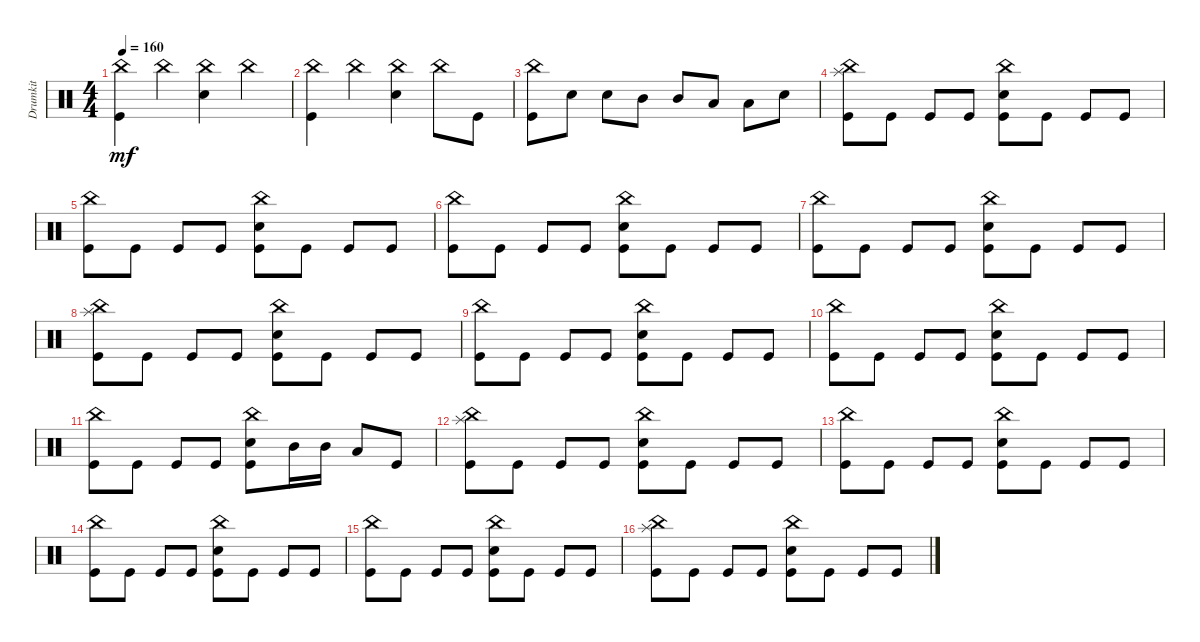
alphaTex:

\track ("Drumkit" "Drumkit") {instrument percussion}
\staff {score}
\articulation defaults
\ts (4 4)
\tempo 160
\clef neutral
\ks c
("China (hit)" "Kick (hit)").4{dy mf} "China (hit)".4 ("China (hit)" "Snare (hit) 2").4 "China (hit)".4 |
("Kick (hit)" "China (hit)").4 "China (hit)".4 ("China (hit)" "Snare (hit) 2").4 "China (hit)".8 "Kick (hit)".8 |
("Kick (hit)" "China (hit)").8 "Snare (hit) 2".8 "Snare (hit) 2".8 "Mid Tom (hit)".8 "Mid Tom (hit)".8 "Low Tom (hit)".8 "Low Floor Tom (hit)".8 "Snare (hit) 2".8 |
("Kick (hit)" "China (hit)" "Splash (hit)").8 "Kick (hit)".8 "Kick (hit)".8 "Kick (hit)".8 ("Kick (hit)" "China (hit)" "Snare (hit) 2").8 "Kick (hit)".8 "Kick (hit)".8 "Kick (hit)".8 |
("Kick (hit)" "China (hit)").8 "Kick (hit)".8 "Kick (hit)".8 "Kick (hit)".8 ("Kick (hit)" "China (hit)" "Snare (hit) 2").8 "Kick (hit)".8 "Kick (hit)".8 "Kick (hit)".8 |
("Kick (hit)" "China (hit)").8 "Kick (hit)".8 "Kick (hit)".8 "Kick (hit)".8 ("Kick (hit)" "China (hit)" "Snare (hit) 2").8 "Kick (hit)".8 "Kick (hit)".8 "Kick (hit)".8 |
("Kick (hit)" "China (hit)").8 "Kick (hit)".8 "Kick (hit)".8 "Kick (hit)".8 ("Kick (hit)" "China (hit)" "Snare (hit) 2").8 "Kick (hit)".8 "Kick (hit)".8 "Kick (hit)".8 |
("Kick (hit)" "China (hit)" "Splash (hit)").8 "Kick (hit)".8 "Kick (hit)".8 "Kick (hit)".8 ("Kick (hit)" "China (hit)" "Snare (hit) 2").8 "Kick (hit)".8 "Kick (hit)".8 "Kick (hit)".8 |
("Kick (hit)" "China (hit)").8 "Kick (hit)".8 "Kick (hit)".8 "Kick (hit)".8 ("Kick (hit)" "China (hit)" "Snare (hit) 2").8 "Kick (hit)".8 "Kick (hit)".8 "Kick (hit)".8 |
("Kick (hit)" "China (hit)").8 "Kick (hit)".8 "Kick (hit)".8 "Kick (hit)".8 ("Kick (hit)" "China (hit)" "Snare (hit) 2").8 "Kick (hit)".8 "Kick (hit)".8 "Kick (hit)".8 |
("Kick (hit)" "China (hit)").8 "Kick (hit)".8 "Kick (hit)".8 "Kick (hit)".8 ("Kick (hit)" "China (hit)" "Snare (hit) 2").8 "Mid Tom (hit)".16 "Mid Tom (hit)".16 "Low Tom (hit)".8 "Kick (hit)".8 |
("Kick (hit)" "China (hit)" "Splash (hit)").8 "Kick (hit)".8 "Kick (hit)".8 "Kick (hit)".8 ("Kick (hit)" "China (hit)" "Snare (hit) 2").8 "Kick (hit)".8 "Kick (hit)".8 "Kick (hit)".8 |
("Kick (hit)" "China (hit)").8 "Kick (hit)".8 "Kick (hit)".8 "Kick (hit)".8 ("Kick (hit)" "China (hit)" "Snare (hit) 2").8 "Kick (hit)".8 "Kick (hit)".8 "Kick (hit)".8 |
("Kick (hit)" "China (hit)").8 "Kick (hit)".8 "Kick (hit)".8 "Kick (hit)".8 ("Kick (hit)" "China (hit)" "Snare (hit) 2").8 "Kick (hit)".8 "Kick (hit)".8 "Kick (hit)".8 |
("Kick (hit)" "China (hit)").8 "Kick (hit)".8 "Kick (hit)".8 "Kick (hit)".8 ("Kick (hit)" "China (hit)" "Snare (hit) 2").8 "Kick (hit)".8 "Kick (hit)".8 "Kick (hit)".8 |
("Kick (hit)" "China (hit)" "Splash (hit)").8 "Kick (hit)".8 "Kick (hit)".8 "Kick (hit)".8 ("Kick (hit)" "China (hit)" "Snare (hit) 2").8 "Kick (hit)".8 "Kick (hit)".8 "Kick (hit)".8
